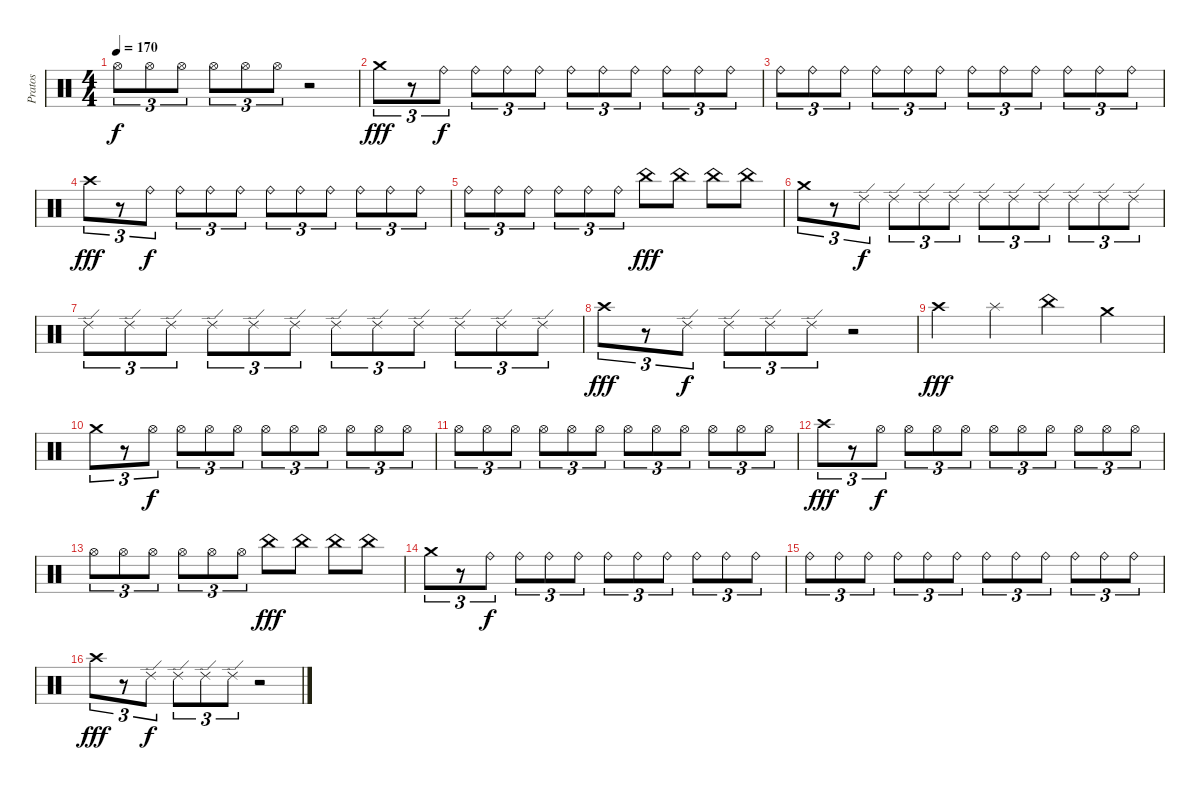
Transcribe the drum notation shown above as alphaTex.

\track ("Pratos" "Pratos") {instrument percussion}
\staff {score}
\articulation defaults
\ts (4 4)
\tempo 170
\clef neutral
\ks c "Hi-Hat (open)".8{tu (3 2) dy f} "Hi-Hat (open)".8{tu (3 2)} "Hi-Hat (open)".8{tu (3 2)} "Hi-Hat (open)".8{tu (3 2)} "Hi-Hat (open)".8{tu (3 2)} "Hi-Hat (open)".8{tu (3 2)}
r.2 |
"Crash medium (hit)".8{tu (3 2) dy fff} r.8{tu (3 2)} "Ride (bell)".8{tu (3 2) dy f} "Ride (bell)".8{tu (3 2)} "Ride (bell)".8{tu (3 2)} "Ride (bell)".8{tu (3 2)} "Ride (bell)".8{tu (3 2)} "Ride (bell)".8{tu (3 2)} "Ride (bell)".8{tu (3 2)} "Ride (bell)".8{tu (3 2)} "Ride (bell)".8{tu (3 2)} "Ride (bell)".8{tu (3 2)} |
"Ride (bell)".8{tu (3 2)} "Ride (bell)".8{tu (3 2)} "Ride (bell)".8{tu (3 2)} "Ride (bell)".8{tu (3 2)} "Ride (bell)".8{tu (3 2)} "Ride (bell)".8{tu (3 2)} "Ride (bell)".8{tu (3 2)} "Ride (bell)".8{tu (3 2)} "Ride (bell)".8{tu (3 2)} "Ride (bell)".8{tu (3 2)} "Ride (bell)".8{tu (3 2)} "Ride (bell)".8{tu (3 2)} |
"Crash high (hit)".8{tu (3 2) dy fff} r.8{tu (3 2)} "Ride (bell)".8{tu (3 2) dy f} "Ride (bell)".8{tu (3 2)} "Ride (bell)".8{tu (3 2)} "Ride (bell)".8{tu (3 2)} "Ride (bell)".8{tu (3 2)} "Ride (bell)".8{tu (3 2)} "Ride (bell)".8{tu (3 2)} "Ride (bell)".8{tu (3 2)} "Ride (bell)".8{tu (3 2)} "Ride (bell)".8{tu (3 2)} |
"Ride (bell)".8{tu (3 2)} "Ride (bell)".8{tu (3 2)} "Ride (bell)".8{tu (3 2)} "Ride (bell)".8{tu (3 2)} "Ride (bell)".8{tu (3 2)} "Ride (bell)".8{tu (3 2)} "China (hit)".8{dy fff} "China (hit)".8 "China (hit)".8 "China (hit)".8 |
"Crash medium (hit)".8{tu (3 2)} r.8{tu (3 2)} "Ride (edge) 2".8{tu (3 2) dy f} "Ride (edge) 2".8{tu (3 2)} "Ride (edge) 2".8{tu (3 2)} "Ride (edge) 2".8{tu (3 2)} "Ride (edge) 2".8{tu (3 2)} "Ride (edge) 2".8{tu (3 2)} "Ride (edge) 2".8{tu (3 2)} "Ride (edge) 2".8{tu (3 2)} "Ride (edge) 2".8{tu (3 2)} "Ride (edge) 2".8{tu (3 2)} |
"Ride (edge) 2".8{tu (3 2)} "Ride (edge) 2".8{tu (3 2)} "Ride (edge) 2".8{tu (3 2)} "Ride (edge) 2".8{tu (3 2)} "Ride (edge) 2".8{tu (3 2)} "Ride (edge) 2".8{tu (3 2)} "Ride (edge) 2".8{tu (3 2)} "Ride (edge) 2".8{tu (3 2)} "Ride (edge) 2".8{tu (3 2)} "Ride (edge) 2".8{tu (3 2)} "Ride (edge) 2".8{tu (3 2)} "Ride (edge) 2".8{tu (3 2)} |
"Crash high (hit)".8{tu (3 2) dy fff} r.8{tu (3 2)} "Ride (edge) 2".8{tu (3 2) dy f} "Ride (edge) 2".8{tu (3 2)} "Ride (edge) 2".8{tu (3 2)} "Ride (edge) 2".8{tu (3 2)} r.2 |
"Crash high (hit)".4{dy fff} "Splash (hit)".4 "China (hit)".4 "Crash medium (hit)".4 |
"Crash medium (hit)".8{tu (3 2)} r.8{tu (3 2)} "Hi-Hat (open)".8{tu (3 2) dy f} "Hi-Hat (open)".8{tu (3 2)} "Hi-Hat (open)".8{tu (3 2)} "Hi-Hat (open)".8{tu (3 2)} "Hi-Hat (open)".8{tu (3 2)} "Hi-Hat (open)".8{tu (3 2)} "Hi-Hat (open)".8{tu (3 2)} "Hi-Hat (open)".8{tu (3 2)} "Hi-Hat (open)".8{tu (3 2)} "Hi-Hat (open)".8{tu (3 2)} |
"Hi-Hat (open)".8{tu (3 2)} "Hi-Hat (open)".8{tu (3 2)} "Hi-Hat (open)".8{tu (3 2)} "Hi-Hat (open)".8{tu (3 2)} "Hi-Hat (open)".8{tu (3 2)} "Hi-Hat (open)".8{tu (3 2)} "Hi-Hat (open)".8{tu (3 2)} "Hi-Hat (open)".8{tu (3 2)} "Hi-Hat (open)".8{tu (3 2)} "Hi-Hat (open)".8{tu (3 2)} "Hi-Hat (open)".8{tu (3 2)} "Hi-Hat (open)".8{tu (3 2)} |
"Crash high (hit)".8{tu (3 2) dy fff} r.8{tu (3 2)} "Hi-Hat (open)".8{tu (3 2) dy f} "Hi-Hat (open)".8{tu (3 2)} "Hi-Hat (open)".8{tu (3 2)} "Hi-Hat (open)".8{tu (3 2)} "Hi-Hat (open)".8{tu (3 2)} "Hi-Hat (open)".8{tu (3 2)} "Hi-Hat (open)".8{tu (3 2)} "Hi-Hat (open)".8{tu (3 2)} "Hi-Hat (open)".8{tu (3 2)} "Hi-Hat (open)".8{tu (3 2)} |
"Hi-Hat (open)".8{tu (3 2)} "Hi-Hat (open)".8{tu (3 2)} "Hi-Hat (open)".8{tu (3 2)} "Hi-Hat (open)".8{tu (3 2)} "Hi-Hat (open)".8{tu (3 2)} "Hi-Hat (open)".8{tu (3 2)} "China (hit)".8{dy fff} "China (hit)".8 "China (hit)".8 "China (hit)".8 |
"Crash medium (hit)".8{tu (3 2)} r.8{tu (3 2)} "Ride (bell)".8{tu (3 2) dy f} "Ride (bell)".8{tu (3 2)} "Ride (bell)".8{tu (3 2)} "Ride (bell)".8{tu (3 2)} "Ride (bell)".8{tu (3 2)} "Ride (bell)".8{tu (3 2)} "Ride (bell)".8{tu (3 2)} "Ride (bell)".8{tu (3 2)} "Ride (bell)".8{tu (3 2)} "Ride (bell)".8{tu (3 2)} |
"Ride (bell)".8{tu (3 2)} "Ride (bell)".8{tu (3 2)} "Ride (bell)".8{tu (3 2)} "Ride (bell)".8{tu (3 2)} "Ride (bell)".8{tu (3 2)} "Ride (bell)".8{tu (3 2)} "Ride (bell)".8{tu (3 2)} "Ride (bell)".8{tu (3 2)} "Ride (bell)".8{tu (3 2)} "Ride (bell)".8{tu (3 2)} "Ride (bell)".8{tu (3 2)} "Ride (bell)".8{tu (3 2)} |
"Crash high (hit)".8{tu (3 2) dy fff} r.8{tu (3 2)} "Ride (edge) 2".8{tu (3 2) dy f} "Ride (edge) 2".8{tu (3 2)} "Ride (edge) 2".8{tu (3 2)} "Ride (edge) 2".8{tu (3 2)} r.2
